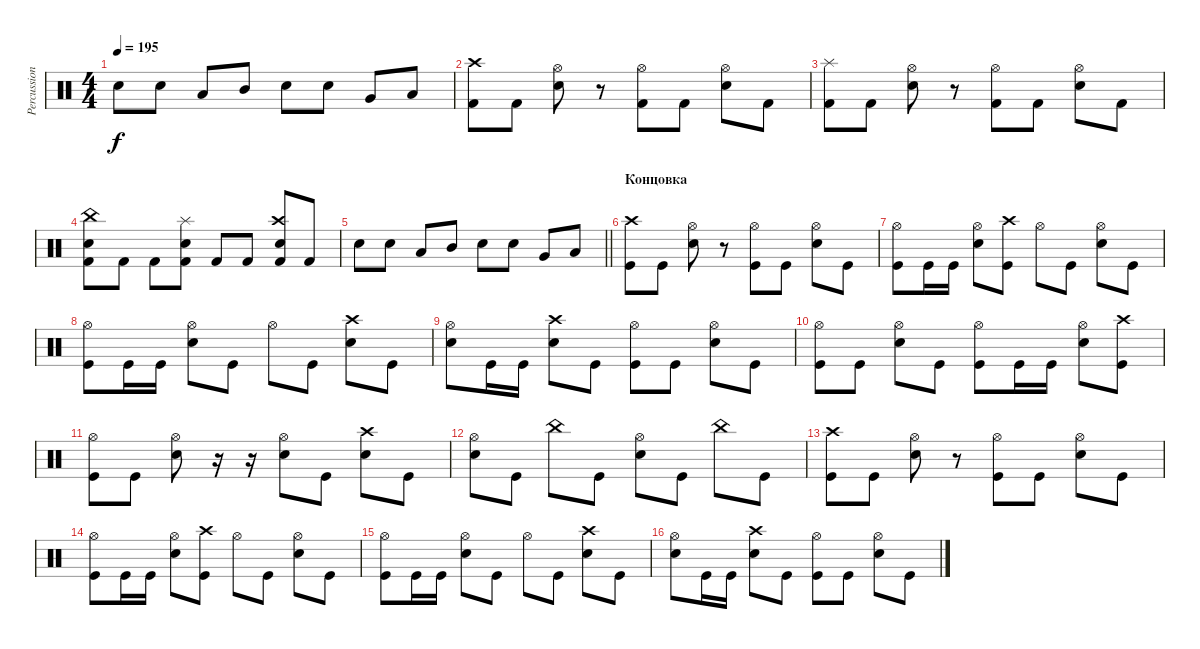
\track ("Percussions" "Percussion") {instrument percussion}
\staff {score}
\articulation defaults
\ts (4 4)
\tempo 195
\clef neutral
\ks c "Electric Snare (hit)".8{dy f} "Electric Snare (hit)".8 "Low Tom (hit)".8 "Mid Tom (hit)".8 "Electric Snare (hit)".8 "Electric Snare (hit)".8 "Very Low Tom (hit)".8 "Low Tom (hit)".8
|
("Crash high (hit)" "Kick (hit) 2").8 "Kick (hit) 2".8 ("Hi-Hat (open)" "Electric Snare (hit)").8 r.8 ("Hi-Hat (open)" "Kick (hit) 2").8 "Kick (hit) 2".8 ("Electric Snare (hit)" "Hi-Hat (open)").8 "Kick (hit) 2".8 |
("Splash (hit)" "Kick (hit) 2").8 "Kick (hit) 2".8 ("Hi-Hat (open)" "Electric Snare (hit)").8 r.8 ("Hi-Hat (open)" "Kick (hit) 2").8 "Kick (hit) 2".8 ("Electric Snare (hit)" "Hi-Hat (open)").8 "Kick (hit) 2".8 |
("Kick (hit) 2" "Electric Snare (hit)" "China (hit)").8 "Kick (hit) 2".8 "Kick (hit) 2".8 ("Kick (hit) 2" "Electric Snare (hit)" "Splash (hit)").8 "Kick (hit) 2".8 "Kick (hit) 2".8 ("Kick (hit) 2" "Electric Snare (hit)" "Crash high (hit)").8 "Kick (hit) 2".8 |
\barLineRight lightlight "Electric Snare (hit)".8 "Electric Snare (hit)".8 "Low Tom (hit)".8 "Mid Tom (hit)".8 "Electric Snare (hit)".8 "Electric Snare (hit)".8 "Very Low Tom (hit)".8 "Low Tom (hit)".8
|
\section ("" "Концовка")
("Crash high (hit)" "Kick (hit)").8 "Kick (hit)".8 ("Hi-Hat (open)" "Electric Snare (hit)").8 r.8 ("Hi-Hat (open)" "Kick (hit)").8 "Kick (hit)".8 ("Hi-Hat (open)" "Electric Snare (hit)").8 "Kick (hit)".8 |
("Hi-Hat (open)" "Kick (hit)").8 "Kick (hit)".16 "Kick (hit)".16 ("Hi-Hat (open)" "Electric Snare (hit)").8 ("Crash high (hit)" "Kick (hit)").8 "Hi-Hat (open)".8 "Kick (hit)".8 ("Hi-Hat (open)" "Electric Snare (hit)").8 "Kick (hit)".8 |
("Hi-Hat (open)" "Kick (hit)").8 "Kick (hit)".16 "Kick (hit)".16 ("Hi-Hat (open)" "Electric Snare (hit)").8 "Kick (hit)".8 "Hi-Hat (open)".8 "Kick (hit)".8 ("Crash high (hit)" "Electric Snare (hit)").8 "Kick (hit)".8 |
("Hi-Hat (open)" "Electric Snare (hit)").8 "Kick (hit)".16 "Kick (hit)".16 ("Crash high (hit)" "Electric Snare (hit)").8 "Kick (hit)".8 ("Hi-Hat (open)" "Kick (hit)").8 "Kick (hit)".8 ("Hi-Hat (open)" "Electric Snare (hit)").8 "Kick (hit)".8 |
("Hi-Hat (open)" "Kick (hit)").8 "Kick (hit)".8 ("Hi-Hat (open)" "Electric Snare (hit)").8 "Kick (hit)".8 ("Hi-Hat (open)" "Kick (hit)").8 "Kick (hit)".16 "Kick (hit)".16 ("Hi-Hat (open)" "Electric Snare (hit)").8 ("Crash high (hit)" "Kick (hit)").8 |
("Hi-Hat (open)" "Kick (hit)").8 "Kick (hit)".8 ("Hi-Hat (open)" "Electric Snare (hit)").8 r.16 r.16 ("Hi-Hat (open)" "Electric Snare (hit)").8 "Kick (hit)".8 ("Crash high (hit)" "Electric Snare (hit)").8 "Kick (hit)".8 |
("Hi-Hat (open)" "Electric Snare (hit)").8 "Kick (hit)".8 "China (hit)".8 "Kick (hit)".8 ("Hi-Hat (open)" "Electric Snare (hit)").8 "Kick (hit)".8 "China (hit)".8 "Kick (hit)".8 |
("Crash high (hit)" "Kick (hit)").8 "Kick (hit)".8 ("Hi-Hat (open)" "Electric Snare (hit)").8 r.8 ("Hi-Hat (open)" "Kick (hit)").8 "Kick (hit)".8 ("Hi-Hat (open)" "Electric Snare (hit)").8 "Kick (hit)".8 |
("Hi-Hat (open)" "Kick (hit)").8 "Kick (hit)".16 "Kick (hit)".16 ("Hi-Hat (open)" "Electric Snare (hit)").8 ("Crash high (hit)" "Kick (hit)").8 "Hi-Hat (open)".8 "Kick (hit)".8 ("Hi-Hat (open)" "Electric Snare (hit)").8 "Kick (hit)".8 |
("Hi-Hat (open)" "Kick (hit)").8 "Kick (hit)".16 "Kick (hit)".16 ("Hi-Hat (open)" "Electric Snare (hit)").8 "Kick (hit)".8 "Hi-Hat (open)".8 "Kick (hit)".8 ("Crash high (hit)" "Electric Snare (hit)").8 "Kick (hit)".8 |
("Hi-Hat (open)" "Electric Snare (hit)").8 "Kick (hit)".16 "Kick (hit)".16 ("Crash high (hit)" "Electric Snare (hit)").8 "Kick (hit)".8 ("Hi-Hat (open)" "Kick (hit)").8 "Kick (hit)".8 ("Hi-Hat (open)" "Electric Snare (hit)").8 "Kick (hit)".8
